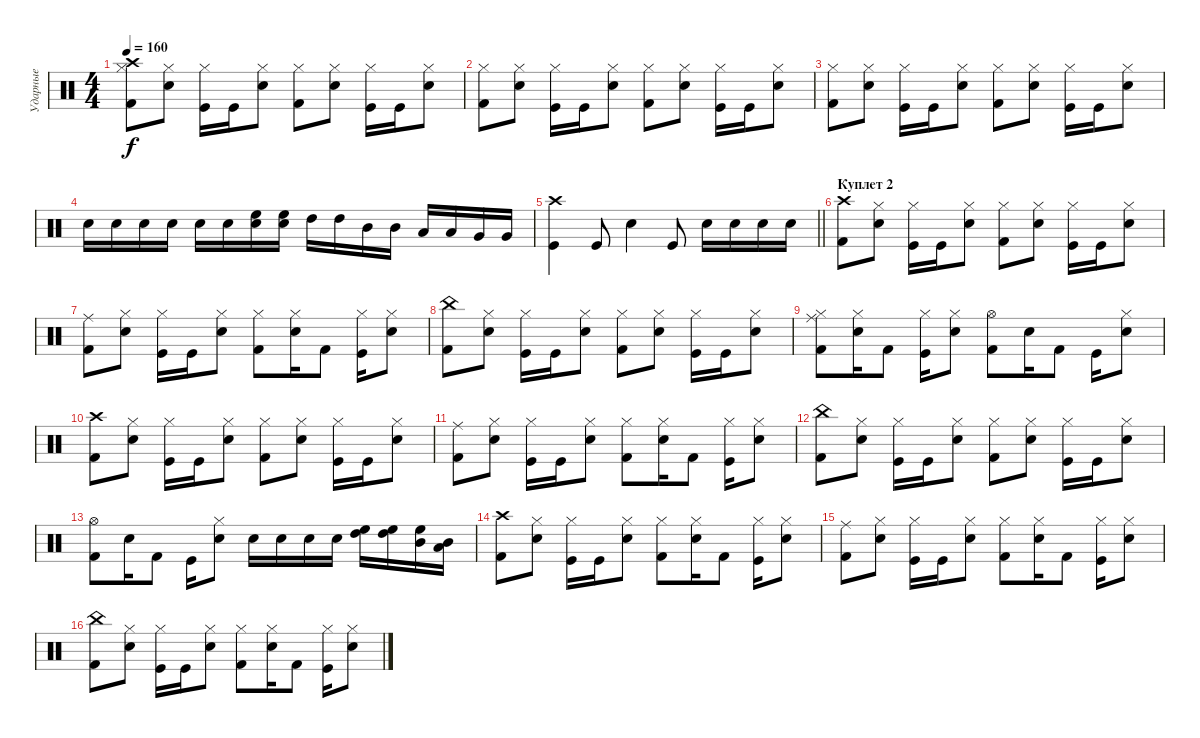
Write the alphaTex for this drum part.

\track ("Ударные" "Ударные") {instrument percussion}
\staff {score}
\articulation defaults
\ts (4 4)
\tempo 160
\clef neutral
\ks c
("Crash high (hit)" "Hi-Hat (closed)" "Kick (hit) 2").8{dy f} ("Hi-Hat (closed)" "Snare (hit) 2").8 ("Hi-Hat (closed)" "Kick (hit)").16 "Kick (hit)".16 ("Hi-Hat (closed)" "Snare (hit) 2").8 ("Hi-Hat (closed)" "Kick (hit) 2").8 ("Hi-Hat (closed)" "Snare (hit) 2").8 ("Hi-Hat (closed)" "Kick (hit)").16 "Kick (hit)".16 ("Hi-Hat (closed)" "Snare (hit) 2").8 |
("Hi-Hat (closed)" "Kick (hit) 2").8 ("Hi-Hat (closed)" "Snare (hit) 2").8 ("Hi-Hat (closed)" "Kick (hit)").16 "Kick (hit)".16 ("Hi-Hat (closed)" "Snare (hit) 2").8 ("Hi-Hat (closed)" "Kick (hit) 2").8 ("Hi-Hat (closed)" "Snare (hit) 2").8 ("Hi-Hat (closed)" "Kick (hit)").16 "Kick (hit)".16 ("Hi-Hat (closed)" "Snare (hit) 2").8 |
("Hi-Hat (closed)" "Kick (hit) 2").8 ("Hi-Hat (closed)" "Snare (hit) 2").8 ("Hi-Hat (closed)" "Kick (hit)").16 "Kick (hit)".16 ("Hi-Hat (closed)" "Snare (hit) 2").8 ("Hi-Hat (closed)" "Kick (hit) 2").8 ("Hi-Hat (closed)" "Snare (hit) 2").8 ("Hi-Hat (closed)" "Kick (hit)").16 "Kick (hit)".16 ("Hi-Hat (closed)" "Snare (hit) 2").8 |
"Snare (hit) 2".16 "Snare (hit) 2".16 "Snare (hit) 2".16 "Snare (hit) 2".16 "Snare (hit) 2".16 "Snare (hit) 2".16 ("High Floor Tom (hit)" "Snare (hit) 2").16 ("High Floor Tom (hit)" "Snare (hit) 2").16 "High Tom (hit)".16 "High Tom (hit)".16 "Mid Tom (hit)".16 "Mid Tom (hit)".16 "Low Tom (hit)".16 "Low Tom (hit)".16 "Very Low Tom (hit)".16 "Very Low Tom (hit)".16 |
\barLineRight lightlight
("Crash high (hit)" "Kick (hit)").4 "Kick (hit)".8 "Snare (hit) 2".4 "Kick (hit)".8 "Snare (hit) 2".16 "Snare (hit) 2".16 "Snare (hit) 2".16 "Snare (hit) 2".16 |
\section ("" "Куплет 2")
("Crash high (hit)" "Kick (hit) 2").8 ("Hi-Hat (closed)" "Snare (hit) 2").8 ("Hi-Hat (closed)" "Kick (hit)").16 "Kick (hit)".16 ("Hi-Hat (closed)" "Snare (hit) 2").8 ("Hi-Hat (closed)" "Kick (hit) 2").8 ("Hi-Hat (closed)" "Snare (hit) 2").8 ("Hi-Hat (closed)" "Kick (hit)").16 "Kick (hit)".16 ("Hi-Hat (closed)" "Snare (hit) 2").8 |
("Ride (middle)" "Kick (hit) 2").8 ("Hi-Hat (closed)" "Snare (hit) 2").8 ("Hi-Hat (closed)" "Kick (hit)").16 "Kick (hit)".16 ("Hi-Hat (closed)" "Snare (hit) 2").8 ("Hi-Hat (closed)" "Kick (hit) 2").8 ("Hi-Hat (closed)" "Snare (hit) 2").16 "Kick (hit) 2".8 ("Hi-Hat (closed)" "Kick (hit)").16 ("Hi-Hat (closed)" "Snare (hit) 2").8 |
("China (hit)" "Kick (hit) 2").8 ("Hi-Hat (closed)" "Snare (hit) 2").8 ("Hi-Hat (closed)" "Kick (hit)").16 "Kick (hit)".16 ("Hi-Hat (closed)" "Snare (hit) 2").8 ("Hi-Hat (closed)" "Kick (hit) 2").8 ("Hi-Hat (closed)" "Snare (hit) 2").8 ("Hi-Hat (closed)" "Kick (hit)").16 "Kick (hit)".16 ("Hi-Hat (closed)" "Snare (hit) 2").8 |
("Ride (middle)" "Hi-Hat (closed)" "Kick (hit) 2").8 ("Hi-Hat (closed)" "Snare (hit) 2").16 "Kick (hit) 2".8 ("Hi-Hat (closed)" "Kick (hit)").16 ("Hi-Hat (closed)" "Snare (hit) 2").8 ("Hi-Hat (open)" "Kick (hit) 2").8 "Snare (hit) 2".16 "Kick (hit) 2".8 "Kick (hit)".16 ("Hi-Hat (closed)" "Snare (hit) 2").8 |
("Crash high (hit)" "Kick (hit) 2").8 ("Hi-Hat (closed)" "Snare (hit) 2").8 ("Hi-Hat (closed)" "Kick (hit)").16 "Kick (hit)".16 ("Hi-Hat (closed)" "Snare (hit) 2").8 ("Hi-Hat (closed)" "Kick (hit) 2").8 ("Hi-Hat (closed)" "Snare (hit) 2").8 ("Hi-Hat (closed)" "Kick (hit)").16 "Kick (hit)".16 ("Hi-Hat (closed)" "Snare (hit) 2").8 |
("Ride (middle)" "Kick (hit) 2").8 ("Hi-Hat (closed)" "Snare (hit) 2").8 ("Hi-Hat (closed)" "Kick (hit)").16 "Kick (hit)".16 ("Hi-Hat (closed)" "Snare (hit) 2").8 ("Hi-Hat (closed)" "Kick (hit) 2").8 ("Hi-Hat (closed)" "Snare (hit) 2").16 "Kick (hit) 2".8 ("Hi-Hat (closed)" "Kick (hit)").16 ("Hi-Hat (closed)" "Snare (hit) 2").8 |
("China (hit)" "Kick (hit) 2").8 ("Hi-Hat (closed)" "Snare (hit) 2").8 ("Hi-Hat (closed)" "Kick (hit)").16 "Kick (hit)".16 ("Hi-Hat (closed)" "Snare (hit) 2").8 ("Hi-Hat (closed)" "Kick (hit) 2").8 ("Hi-Hat (closed)" "Snare (hit) 2").8 ("Hi-Hat (closed)" "Kick (hit)").16 "Kick (hit)".16 ("Hi-Hat (closed)" "Snare (hit) 2").8 |
("Hi-Hat (open)" "Kick (hit) 2").8 "Snare (hit) 2".16 "Kick (hit) 2".8 "Kick (hit)".16 ("Hi-Hat (closed)" "Snare (hit) 2").8 "Snare (hit) 2".16 "Snare (hit) 2".16 "Snare (hit) 2".16 "Snare (hit) 2".16 ("High Tom (hit)" "High Floor Tom (hit)").16 ("High Floor Tom (hit)" "High Tom (hit)").16 ("High Floor Tom (hit)" "Mid Tom (hit)").16 ("Mid Tom (hit)" "Low Tom (hit)").16 |
("Crash high (hit)" "Kick (hit) 2").8 ("Hi-Hat (closed)" "Snare (hit) 2").8 ("Hi-Hat (closed)" "Kick (hit)").16 "Kick (hit)".16 ("Hi-Hat (closed)" "Snare (hit) 2").8 ("Hi-Hat (closed)" "Kick (hit) 2").8 ("Hi-Hat (closed)" "Snare (hit) 2").16 "Kick (hit) 2".8 ("Hi-Hat (closed)" "Kick (hit)").16 ("Hi-Hat (closed)" "Snare (hit) 2").8 |
("Ride (middle)" "Kick (hit) 2").8 ("Hi-Hat (closed)" "Snare (hit) 2").8 ("Hi-Hat (closed)" "Kick (hit)").16 "Kick (hit)".16 ("Hi-Hat (closed)" "Snare (hit) 2").8 ("Hi-Hat (closed)" "Kick (hit) 2").8 ("Hi-Hat (closed)" "Snare (hit) 2").16 "Kick (hit) 2".8 ("Hi-Hat (closed)" "Kick (hit)").16 ("Hi-Hat (closed)" "Snare (hit) 2").8 |
("China (hit)" "Kick (hit) 2").8 ("Hi-Hat (closed)" "Snare (hit) 2").8 ("Hi-Hat (closed)" "Kick (hit)").16 "Kick (hit)".16 ("Hi-Hat (closed)" "Snare (hit) 2").8 ("Hi-Hat (closed)" "Kick (hit) 2").8 ("Hi-Hat (closed)" "Snare (hit) 2").16 "Kick (hit) 2".8 ("Hi-Hat (closed)" "Kick (hit)").16 ("Hi-Hat (closed)" "Snare (hit) 2").8
